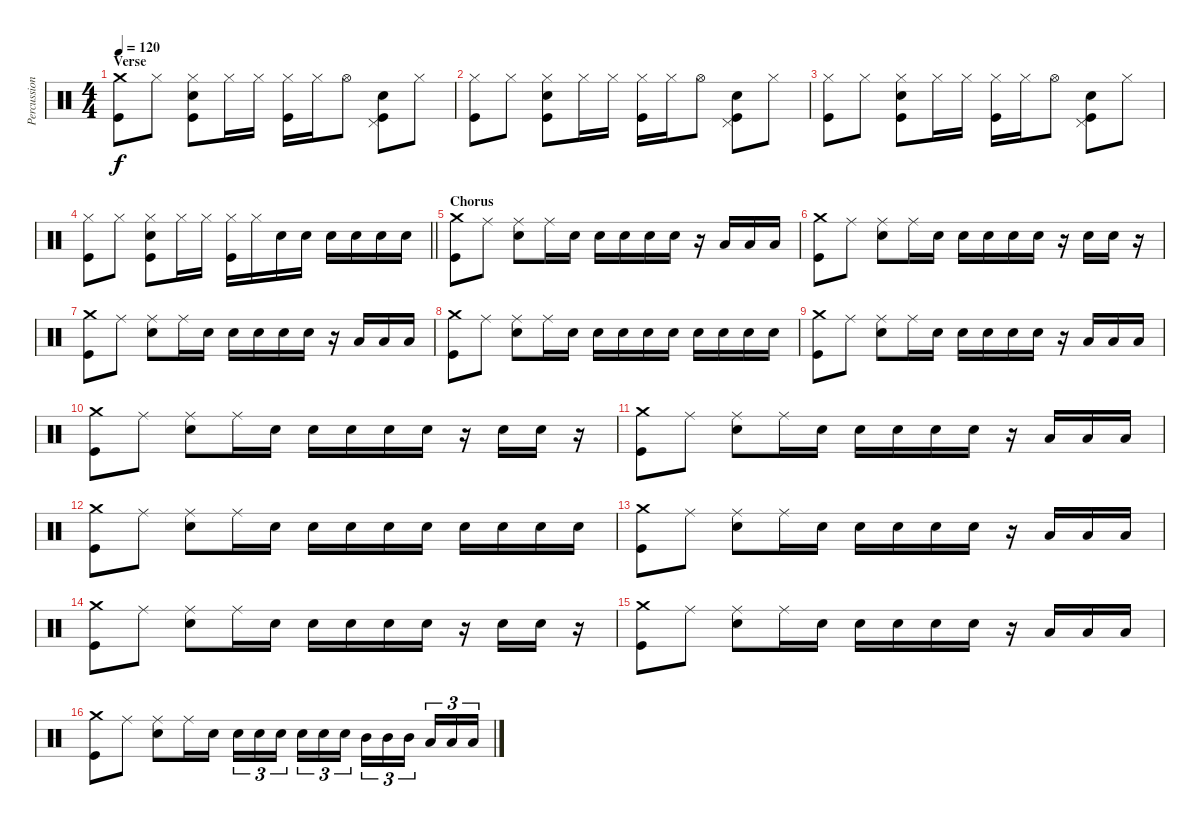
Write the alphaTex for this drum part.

\track ("Percussion" "Percussion") {instrument percussion}
\staff {score}
\articulation defaults
\ts (4 4)
\section ("" "Verse")
\tempo 120
\clef neutral
\ks c
("Crash medium (hit)" "Kick (hit)").8{dy f} "Hi-Hat (closed)".8 ("Snare (hit) 2" "Hi-Hat (closed)" "Kick (hit)").8 "Hi-Hat (closed)".16 "Hi-Hat (closed)".16 ("Hi-Hat (closed)" "Kick (hit)").16 "Hi-Hat (closed)".16 "Hi-Hat (open)".8 ("Snare (hit) 2" "Pedal Hi-Hat (hit)" "Kick (hit)").8 "Hi-Hat (closed)".8 |
("Hi-Hat (closed)" "Kick (hit)").8 "Hi-Hat (closed)".8 ("Snare (hit) 2" "Hi-Hat (closed)" "Kick (hit)").8 "Hi-Hat (closed)".16 "Hi-Hat (closed)".16 ("Hi-Hat (closed)" "Kick (hit)").16 "Hi-Hat (closed)".16 "Hi-Hat (open)".8 ("Snare (hit) 2" "Pedal Hi-Hat (hit)" "Kick (hit)").8 "Hi-Hat (closed)".8 |
("Hi-Hat (closed)" "Kick (hit)").8 "Hi-Hat (closed)".8 ("Snare (hit) 2" "Hi-Hat (closed)" "Kick (hit)").8 "Hi-Hat (closed)".16 "Hi-Hat (closed)".16 ("Hi-Hat (closed)" "Kick (hit)").16 "Hi-Hat (closed)".16 "Hi-Hat (open)".8 ("Snare (hit) 2" "Pedal Hi-Hat (hit)" "Kick (hit)").8 "Hi-Hat (closed)".8 |
\barLineRight lightlight
("Hi-Hat (closed)" "Kick (hit)").8 "Hi-Hat (closed)".8 ("Snare (hit) 2" "Hi-Hat (closed)" "Kick (hit)").8 "Hi-Hat (closed)".16 "Hi-Hat (closed)".16 ("Hi-Hat (closed)" "Kick (hit)").16 "Hi-Hat (closed)".16 "Snare (hit) 2".16 "Snare (hit) 2".16 "Snare (hit) 2".16 "Snare (hit) 2".16 "Snare (hit) 2".16 "Snare (hit) 2".16 |
\section ("" "Chorus")
("Crash medium (hit)" "Kick (hit)").8 "Ride (middle)".8 ("Ride (middle)" "Snare (hit) 2").8 "Ride (middle)".16 "Snare (hit) 2".16 "Snare (hit) 2".16 "Snare (hit) 2".16 "Snare (hit) 2".16 "Snare (hit) 2".16 r.16 "Low Tom (hit)".16 "Low Tom (hit)".16 "Low Tom (hit)".16 |
("Crash medium (hit)" "Kick (hit)").8 "Ride (middle)".8 ("Ride (middle)" "Snare (hit) 2").8 "Ride (middle)".16 "Snare (hit) 2".16 "Snare (hit) 2".16 "Snare (hit) 2".16 "Snare (hit) 2".16 "Snare (hit) 2".16 r.16 "Snare (hit) 2".16 "Snare (hit) 2".16 r.16 |
("Crash medium (hit)" "Kick (hit)").8 "Ride (middle)".8 ("Ride (middle)" "Snare (hit) 2").8 "Ride (middle)".16 "Snare (hit) 2".16 "Snare (hit) 2".16 "Snare (hit) 2".16 "Snare (hit) 2".16 "Snare (hit) 2".16 r.16 "Low Tom (hit)".16 "Low Tom (hit)".16 "Low Tom (hit)".16 |
("Crash medium (hit)" "Kick (hit)").8 "Ride (middle)".8 ("Ride (middle)" "Snare (hit) 2").8 "Ride (middle)".16 "Snare (hit) 2".16 "Snare (hit) 2".16 "Snare (hit) 2".16 "Snare (hit) 2".16 "Snare (hit) 2".16 "Snare (hit) 2".16 "Snare (hit) 2".16 "Snare (hit) 2".16 "Snare (hit) 2".16 |
("Crash medium (hit)" "Kick (hit)").8 "Ride (middle)".8 ("Ride (middle)" "Snare (hit) 2").8 "Ride (middle)".16 "Snare (hit) 2".16 "Snare (hit) 2".16 "Snare (hit) 2".16 "Snare (hit) 2".16 "Snare (hit) 2".16 r.16 "Low Tom (hit)".16 "Low Tom (hit)".16 "Low Tom (hit)".16 |
("Crash medium (hit)" "Kick (hit)").8 "Ride (middle)".8 ("Ride (middle)" "Snare (hit) 2").8 "Ride (middle)".16 "Snare (hit) 2".16 "Snare (hit) 2".16 "Snare (hit) 2".16 "Snare (hit) 2".16 "Snare (hit) 2".16 r.16 "Snare (hit) 2".16 "Snare (hit) 2".16 r.16 |
("Crash medium (hit)" "Kick (hit)").8 "Ride (middle)".8 ("Ride (middle)" "Snare (hit) 2").8 "Ride (middle)".16 "Snare (hit) 2".16 "Snare (hit) 2".16 "Snare (hit) 2".16 "Snare (hit) 2".16 "Snare (hit) 2".16 r.16 "Low Tom (hit)".16 "Low Tom (hit)".16 "Low Tom (hit)".16 |
("Crash medium (hit)" "Kick (hit)").8 "Ride (middle)".8 ("Ride (middle)" "Snare (hit) 2").8 "Ride (middle)".16 "Snare (hit) 2".16 "Snare (hit) 2".16 "Snare (hit) 2".16 "Snare (hit) 2".16 "Snare (hit) 2".16 "Snare (hit) 2".16 "Snare (hit) 2".16 "Snare (hit) 2".16 "Snare (hit) 2".16 |
("Crash medium (hit)" "Kick (hit)").8 "Ride (middle)".8 ("Ride (middle)" "Snare (hit) 2").8 "Ride (middle)".16 "Snare (hit) 2".16 "Snare (hit) 2".16 "Snare (hit) 2".16 "Snare (hit) 2".16 "Snare (hit) 2".16 r.16 "Low Tom (hit)".16 "Low Tom (hit)".16 "Low Tom (hit)".16 |
("Crash medium (hit)" "Kick (hit)").8 "Ride (middle)".8 ("Ride (middle)" "Snare (hit) 2").8 "Ride (middle)".16 "Snare (hit) 2".16 "Snare (hit) 2".16 "Snare (hit) 2".16 "Snare (hit) 2".16 "Snare (hit) 2".16 r.16 "Snare (hit) 2".16 "Snare (hit) 2".16 r.16 |
("Crash medium (hit)" "Kick (hit)").8 "Ride (middle)".8 ("Ride (middle)" "Snare (hit) 2").8 "Ride (middle)".16 "Snare (hit) 2".16 "Snare (hit) 2".16 "Snare (hit) 2".16 "Snare (hit) 2".16 "Snare (hit) 2".16 r.16 "Low Tom (hit)".16 "Low Tom (hit)".16 "Low Tom (hit)".16 |
("Crash medium (hit)" "Kick (hit)").8 "Ride (middle)".8 ("Ride (middle)" "Snare (hit) 2").8 "Ride (middle)".16 "Snare (hit) 2".16 "Snare (hit) 2".16{tu (3 2)} "Snare (hit) 2".16{tu (3 2)} "Snare (hit) 2".16{tu (3 2) beam splitsecondary} "Snare (hit) 2".16{tu (3 2)} "Snare (hit) 2".16{tu (3 2)} "Snare (hit) 2".16{tu (3 2)} "Mid Tom (hit)".16{tu (3 2)} "Mid Tom (hit)".16{tu (3 2)} "Mid Tom (hit)".16{tu (3 2) beam splitsecondary} "Low Tom (hit)".16{tu (3 2)} "Low Tom (hit)".16{tu (3 2)} "Low Tom (hit)".16{tu (3 2)}
